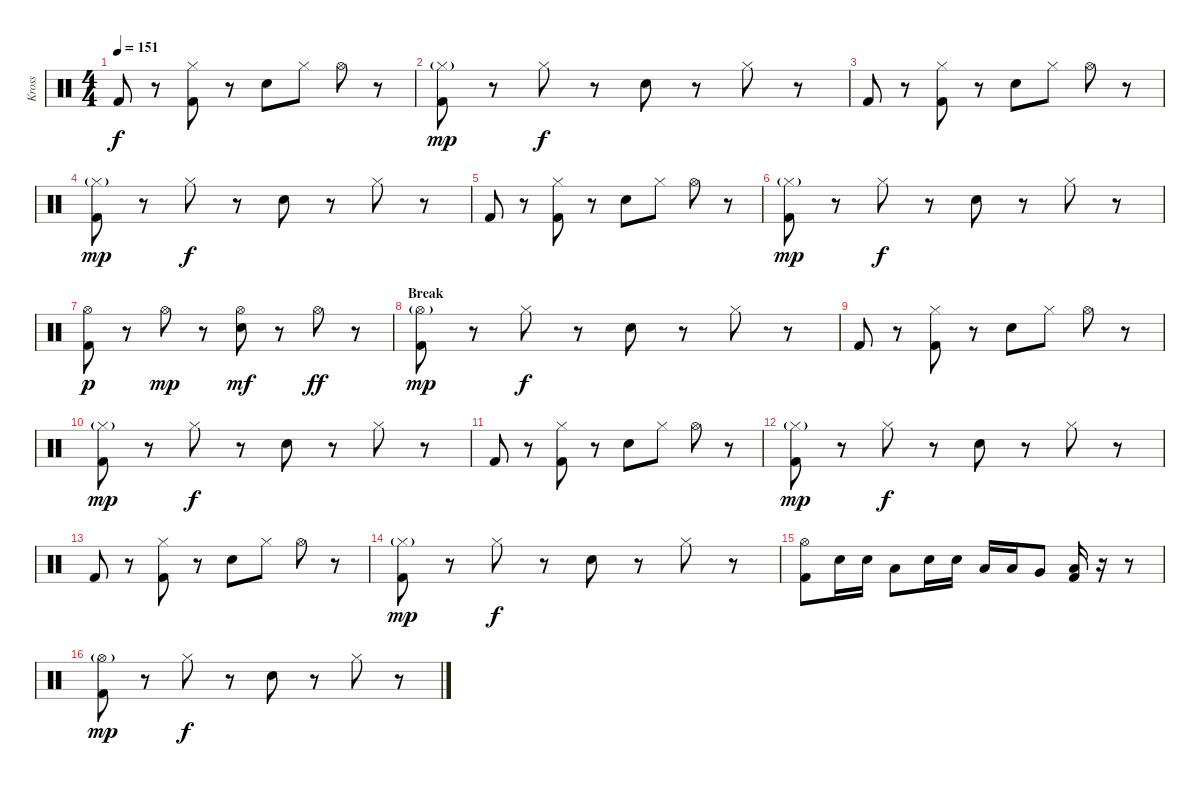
\track ("Kross" "Kross") {instrument percussion}
\staff {score}
\articulation defaults
\ts (4 4)
\tempo 151
\clef neutral
\ks c "Kick (hit) 2".8{dy f}
r.8 ("Hi-Hat (closed)" "Kick (hit) 2").8 r.8 "Electric Snare (hit)".8 "Hi-Hat (closed)".8 "Hi-Hat (open)".8 r.8 |
("Hi-Hat (closed)"{g} "Kick (hit) 2").8{dy mp} r.8 "Hi-Hat (closed)".8{dy f} r.8 "Electric Snare (hit)".8 r.8 "Hi-Hat (closed)".8 r.8 |
"Kick (hit) 2".8 r.8 ("Hi-Hat (closed)" "Kick (hit) 2").8 r.8 "Electric Snare (hit)".8 "Hi-Hat (closed)".8 "Hi-Hat (open)".8 r.8 |
("Hi-Hat (closed)"{g} "Kick (hit) 2").8{dy mp} r.8 "Hi-Hat (closed)".8{dy f} r.8 "Electric Snare (hit)".8 r.8 "Hi-Hat (closed)".8 r.8 |
"Kick (hit) 2".8 r.8 ("Hi-Hat (closed)" "Kick (hit) 2").8 r.8 "Electric Snare (hit)".8 "Hi-Hat (closed)".8 "Hi-Hat (open)".8 r.8 |
("Hi-Hat (closed)"{g} "Kick (hit) 2").8{dy mp} r.8 "Hi-Hat (closed)".8{dy f} r.8 "Electric Snare (hit)".8 r.8 "Hi-Hat (closed)".8 r.8 |
("Hi-Hat (open)" "Kick (hit) 2").8{dy p} r.8 "Hi-Hat (open)".8{dy mp} r.8 ("Hi-Hat (open)" "Electric Snare (hit)").8{dy mf} r.8 "Hi-Hat (open)".8{dy ff} r.8 |
\section ("" "Break")
("Hi-Hat (open)"{g} "Kick (hit) 2").8{dy mp} r.8 "Hi-Hat (closed)".8{dy f} r.8 "Electric Snare (hit)".8 r.8 "Hi-Hat (closed)".8 r.8 |
"Kick (hit) 2".8 r.8 ("Hi-Hat (closed)" "Kick (hit) 2").8 r.8 "Electric Snare (hit)".8 "Hi-Hat (closed)".8 "Hi-Hat (open)".8 r.8 |
("Hi-Hat (closed)"{g} "Kick (hit) 2").8{dy mp} r.8 "Hi-Hat (closed)".8{dy f} r.8 "Electric Snare (hit)".8 r.8 "Hi-Hat (closed)".8 r.8 |
"Kick (hit) 2".8 r.8 ("Hi-Hat (closed)" "Kick (hit) 2").8 r.8 "Electric Snare (hit)".8 "Hi-Hat (closed)".8 "Hi-Hat (open)".8 r.8 |
("Hi-Hat (closed)"{g} "Kick (hit) 2").8{dy mp} r.8 "Hi-Hat (closed)".8{dy f} r.8 "Electric Snare (hit)".8 r.8 "Hi-Hat (closed)".8 r.8 |
"Kick (hit) 2".8 r.8 ("Hi-Hat (closed)" "Kick (hit) 2").8 r.8 "Electric Snare (hit)".8 "Hi-Hat (closed)".8 "Hi-Hat (open)".8 r.8 |
("Hi-Hat (closed)"{g} "Kick (hit) 2").8{dy mp} r.8 "Hi-Hat (closed)".8{dy f} r.8 "Electric Snare (hit)".8 r.8 "Hi-Hat (closed)".8 r.8 |
("Hi-Hat (open)" "Kick (hit) 2").8 "Electric Snare (hit)".16 "Electric Snare (hit)".16 "Low Tom (hit)".8 "Electric Snare (hit)".16 "Electric Snare (hit)".16 "Low Tom (hit)".16 "Low Tom (hit)".16 "Very Low Tom (hit)".8 ("Low Floor Tom (hit)" "Kick (hit) 2").16 r.16 r.8 |
("Hi-Hat (open)"{g} "Kick (hit) 2").8{dy mp} r.8 "Hi-Hat (closed)".8{dy f} r.8 "Electric Snare (hit)".8 r.8 "Hi-Hat (closed)".8 r.8
